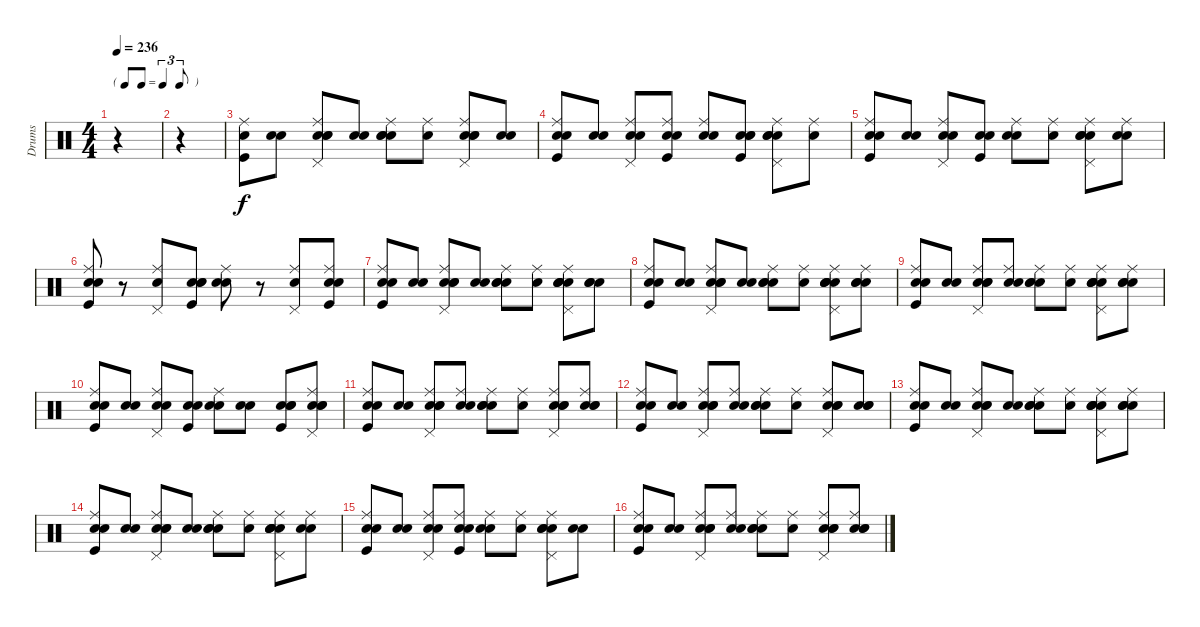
\track ("Drums" "Drums") {instrument percussion}
\staff {score}
\articulation defaults
\ts (4 4)
\tf triplet8th
\tempo 236
\clef neutral
\ks c
r.4{dy f} |
r.4 |
("Kick (hit)" "Electric Snare (hit)" "Ride (middle)").8 ("Snare (hit)" "Electric Snare (hit)").8 ("Snare (hit)" "Snare (hit) 2" "Electric Snare (hit)" "Ride (middle)" "Pedal Hi-Hat (hit)").8 ("Snare (hit)" "Snare (hit) 2").8 ("Snare (hit)" "Snare (hit) 2" "Electric Snare (hit)" "Ride (middle)").8 ("Snare (hit)" "Ride (middle)").8 ("Snare (hit)" "Snare (hit) 2" "Electric Snare (hit)" "Ride (middle)" "Pedal Hi-Hat (hit)").8 ("Snare (hit)" "Snare (hit) 2").8 |
("Snare (hit)" "Kick (hit)" "Electric Snare (hit)" "Ride (middle)").8 ("Snare (hit)" "Electric Snare (hit)").8 ("Snare (hit)" "Snare (hit) 2" "Ride (middle)" "Pedal Hi-Hat (hit)").8 ("Snare (hit)" "Kick (hit)" "Snare (hit) 2" "Ride (middle)").8 ("Snare (hit)" "Electric Snare (hit)" "Ride (middle)").8 ("Snare (hit)" "Kick (hit)" "Electric Snare (hit)" "Hand Clap (hit)").8 ("Snare (hit)" "Electric Snare (hit)" "Ride (middle)" "Pedal Hi-Hat (hit)" "Hand Clap (hit)").8 ("Snare (hit)" "Ride (middle)").8 |
("Snare (hit)" "Kick (hit)" "Electric Snare (hit)" "Ride (middle)").8 ("Snare (hit)" "Electric Snare (hit)").8 ("Snare (hit)" "Snare (hit) 2" "Ride (middle)" "Pedal Hi-Hat (hit)").8 ("Snare (hit)" "Kick (hit)" "Hand Clap (hit)").8 ("Snare (hit)" "Electric Snare (hit)" "Ride (middle)").8 ("Snare (hit)" "Ride (middle)").8 ("Snare (hit)" "Snare (hit) 2" "Ride (middle)" "Pedal Hi-Hat (hit)" "Hand Clap (hit)").8 ("Snare (hit)" "Snare (hit) 2" "Ride (middle)").8 |
("Snare (hit)" "Kick (hit)" "Electric Snare (hit)" "Ride (middle)").8 r.8 ("Snare (hit) 2" "Ride (middle)" "Pedal Hi-Hat (hit)").8 ("Snare (hit)" "Kick (hit)" "Snare (hit) 2" "Hand Clap (hit)").8 ("Snare (hit)" "Electric Snare (hit)" "Ride (middle)").8 r.8 ("Snare (hit) 2" "Ride (middle)" "Pedal Hi-Hat (hit)").8 ("Snare (hit)" "Kick (hit)" "Ride (middle)" "Hand Clap (hit)").8 |
("Snare (hit)" "Kick (hit)" "Electric Snare (hit)" "Ride (middle)").8 ("Snare (hit)" "Electric Snare (hit)").8 ("Snare (hit)" "Snare (hit) 2" "Electric Snare (hit)" "Ride (middle)" "Pedal Hi-Hat (hit)").8 ("Snare (hit)" "Snare (hit) 2").8 ("Snare (hit)" "Snare (hit) 2" "Electric Snare (hit)" "Ride (middle)").8 ("Snare (hit)" "Ride (middle)").8 ("Snare (hit)" "Snare (hit) 2" "Electric Snare (hit)" "Ride (middle)" "Pedal Hi-Hat (hit)" "Hand Clap (hit)").8 ("Snare (hit)" "Snare (hit) 2" "Hand Clap (hit)").8 |
("Snare (hit)" "Kick (hit)" "Electric Snare (hit)" "Ride (middle)").8 ("Snare (hit)" "Electric Snare (hit)").8 ("Snare (hit)" "Snare (hit) 2" "Electric Snare (hit)" "Ride (middle)" "Pedal Hi-Hat (hit)").8 ("Snare (hit)" "Snare (hit) 2").8 ("Snare (hit)" "Snare (hit) 2" "Electric Snare (hit)" "Ride (middle)").8 ("Snare (hit)" "Ride (middle)").8 ("Snare (hit)" "Snare (hit) 2" "Electric Snare (hit)" "Ride (middle)" "Pedal Hi-Hat (hit)" "Hand Clap (hit)").8 ("Snare (hit)" "Snare (hit) 2" "Ride (middle)" "Hand Clap (hit)").8 |
("Snare (hit)" "Kick (hit)" "Electric Snare (hit)" "Ride (middle)").8 ("Snare (hit)" "Electric Snare (hit)").8 ("Snare (hit)" "Snare (hit) 2" "Electric Snare (hit)" "Ride (middle)" "Pedal Hi-Hat (hit)").8 ("Snare (hit)" "Snare (hit) 2" "Ride (middle)").8 ("Snare (hit)" "Snare (hit) 2" "Electric Snare (hit)" "Ride (middle)").8 ("Snare (hit)" "Ride (middle)").8 ("Snare (hit)" "Snare (hit) 2" "Electric Snare (hit)" "Ride (middle)" "Pedal Hi-Hat (hit)" "Hand Clap (hit)").8 ("Snare (hit)" "Snare (hit) 2" "Ride (middle)" "Hand Clap (hit)").8 |
("Snare (hit)" "Kick (hit)" "Electric Snare (hit)" "Ride (middle)").8 ("Snare (hit)" "Electric Snare (hit)").8 ("Snare (hit)" "Snare (hit) 2" "Ride (middle)" "Pedal Hi-Hat (hit)").8 ("Snare (hit)" "Kick (hit)" "Hand Clap (hit)").8 ("Snare (hit)" "Electric Snare (hit)" "Ride (middle)").8 ("Snare (hit)" "Snare (hit) 2").8 ("Snare (hit)" "Kick (hit)" "Electric Snare (hit)" "Hand Clap (hit)").8 ("Snare (hit)" "Electric Snare (hit)" "Ride (middle)" "Pedal Hi-Hat (hit)" "Hand Clap (hit)").8 |
("Snare (hit)" "Kick (hit)" "Electric Snare (hit)" "Ride (middle)").8 ("Snare (hit)" "Electric Snare (hit)").8 ("Snare (hit)" "Snare (hit) 2" "Electric Snare (hit)" "Ride (middle)" "Pedal Hi-Hat (hit)").8 ("Snare (hit)" "Snare (hit) 2" "Ride (middle)").8 ("Snare (hit)" "Snare (hit) 2" "Electric Snare (hit)" "Ride (middle)").8 ("Snare (hit)" "Ride (middle)").8 ("Snare (hit)" "Snare (hit) 2" "Electric Snare (hit)" "Ride (middle)" "Pedal Hi-Hat (hit)").8 ("Snare (hit)" "Snare (hit) 2" "Ride (middle)" "Hand Clap (hit)").8 |
("Snare (hit)" "Kick (hit)" "Electric Snare (hit)" "Ride (middle)").8 ("Snare (hit)" "Electric Snare (hit)").8 ("Snare (hit)" "Snare (hit) 2" "Electric Snare (hit)" "Ride (middle)" "Pedal Hi-Hat (hit)").8 ("Snare (hit)" "Snare (hit) 2" "Ride (middle)").8 ("Snare (hit)" "Snare (hit) 2" "Electric Snare (hit)" "Ride (middle)").8 ("Snare (hit)" "Ride (middle)").8 ("Snare (hit)" "Snare (hit) 2" "Electric Snare (hit)" "Ride (middle)" "Pedal Hi-Hat (hit)").8 ("Snare (hit)" "Snare (hit) 2" "Hand Clap (hit)").8 |
("Snare (hit)" "Kick (hit)" "Electric Snare (hit)" "Ride (middle)").8 ("Snare (hit)" "Electric Snare (hit)").8 ("Snare (hit)" "Snare (hit) 2" "Electric Snare (hit)" "Ride (middle)" "Pedal Hi-Hat (hit)").8 ("Snare (hit)" "Snare (hit) 2").8 ("Snare (hit)" "Snare (hit) 2" "Electric Snare (hit)" "Ride (middle)").8 ("Snare (hit)" "Ride (middle)").8 ("Snare (hit)" "Snare (hit) 2" "Electric Snare (hit)" "Ride (middle)" "Pedal Hi-Hat (hit)" "Hand Clap (hit)").8 ("Snare (hit)" "Snare (hit) 2" "Ride (middle)" "Hand Clap (hit)").8 |
("Snare (hit)" "Kick (hit)" "Electric Snare (hit)" "Ride (middle)").8 ("Snare (hit)" "Electric Snare (hit)").8 ("Snare (hit)" "Snare (hit) 2" "Electric Snare (hit)" "Ride (middle)" "Pedal Hi-Hat (hit)").8 ("Snare (hit)" "Snare (hit) 2").8 ("Snare (hit)" "Snare (hit) 2" "Electric Snare (hit)" "Ride (middle)").8 ("Snare (hit)" "Ride (middle)").8 ("Snare (hit)" "Snare (hit) 2" "Electric Snare (hit)" "Ride (middle)" "Pedal Hi-Hat (hit)" "Hand Clap (hit)").8 ("Snare (hit)" "Snare (hit) 2" "Ride (middle)").8 |
("Snare (hit)" "Kick (hit)" "Electric Snare (hit)" "Ride (middle)").8 ("Snare (hit)" "Electric Snare (hit)").8 ("Snare (hit)" "Snare (hit) 2" "Ride (middle)" "Pedal Hi-Hat (hit)").8 ("Snare (hit)" "Kick (hit)" "Snare (hit) 2" "Ride (middle)").8 ("Snare (hit)" "Electric Snare (hit)" "Ride (middle)").8 ("Snare (hit)" "Ride (middle)").8 ("Snare (hit)" "Snare (hit) 2" "Ride (middle)" "Pedal Hi-Hat (hit)" "Hand Clap (hit)").8 ("Snare (hit)" "Hand Clap (hit)").8 |
("Snare (hit)" "Kick (hit)" "Electric Snare (hit)" "Ride (middle)").8 ("Snare (hit)" "Electric Snare (hit)").8 ("Snare (hit)" "Snare (hit) 2" "Electric Snare (hit)" "Ride (middle)" "Pedal Hi-Hat (hit)").8 ("Snare (hit)" "Snare (hit) 2" "Ride (middle)").8 ("Snare (hit)" "Snare (hit) 2" "Electric Snare (hit)" "Ride (middle)").8 ("Snare (hit)" "Ride (middle)").8 ("Snare (hit)" "Snare (hit) 2" "Electric Snare (hit)" "Ride (middle)" "Pedal Hi-Hat (hit)").8 ("Snare (hit)" "Snare (hit) 2" "Ride (middle)" "Hand Clap (hit)").8
